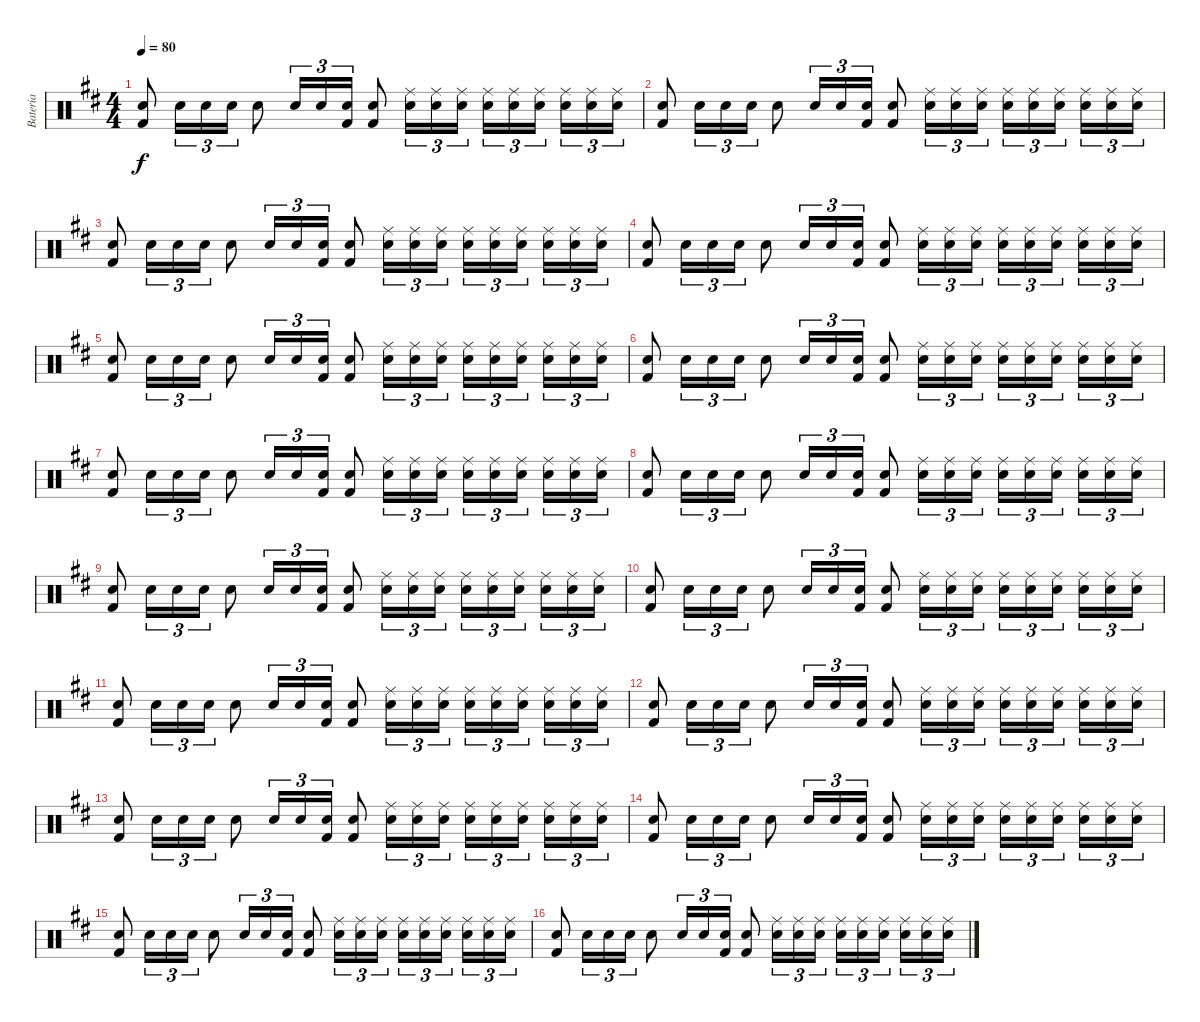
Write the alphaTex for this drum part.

\track ("Bateria" "Bateria") {instrument percussion}
\staff {score}
\articulation defaults
\ts (4 4)
\tempo 80
\clef neutral
\ks d
("Kick (hit) 2" "Electric Snare (hit)").8{dy f} "Electric Snare (hit)".16{tu (3 2)} "Electric Snare (hit)".16{tu (3 2)} "Electric Snare (hit)".16{tu (3 2)} "Electric Snare (hit)".8 "Electric Snare (hit)".16{tu (3 2)} "Electric Snare (hit)".16{tu (3 2)} ("Kick (hit) 2" "Electric Snare (hit)").16{tu (3 2)} ("Kick (hit) 2" "Electric Snare (hit)").8 ("Ride (middle)" "Electric Snare (hit)").16{tu (3 2)} ("Ride (middle)" "Electric Snare (hit)").16{tu (3 2)} ("Ride (middle)" "Electric Snare (hit)").16{tu (3 2)} ("Ride (middle)" "Electric Snare (hit)").16{tu (3 2)} ("Ride (middle)" "Electric Snare (hit)").16{tu (3 2)} ("Ride (middle)" "Electric Snare (hit)").16{tu (3 2) beam splitsecondary} ("Ride (middle)" "Electric Snare (hit)").16{tu (3 2)} ("Ride (middle)" "Electric Snare (hit)").16{tu (3 2)} ("Ride (middle)" "Electric Snare (hit)").16{tu (3 2)} |
("Kick (hit) 2" "Electric Snare (hit)").8 "Electric Snare (hit)".16{tu (3 2)} "Electric Snare (hit)".16{tu (3 2)} "Electric Snare (hit)".16{tu (3 2)} "Electric Snare (hit)".8 "Electric Snare (hit)".16{tu (3 2)} "Electric Snare (hit)".16{tu (3 2)} ("Kick (hit) 2" "Electric Snare (hit)").16{tu (3 2)} ("Kick (hit) 2" "Electric Snare (hit)").8 ("Ride (middle)" "Electric Snare (hit)").16{tu (3 2)} ("Ride (middle)" "Electric Snare (hit)").16{tu (3 2)} ("Ride (middle)" "Electric Snare (hit)").16{tu (3 2)} ("Ride (middle)" "Electric Snare (hit)").16{tu (3 2)} ("Ride (middle)" "Electric Snare (hit)").16{tu (3 2)} ("Ride (middle)" "Electric Snare (hit)").16{tu (3 2) beam splitsecondary} ("Ride (middle)" "Electric Snare (hit)").16{tu (3 2)} ("Ride (middle)" "Electric Snare (hit)").16{tu (3 2)} ("Ride (middle)" "Electric Snare (hit)").16{tu (3 2)} |
("Kick (hit) 2" "Electric Snare (hit)").8 "Electric Snare (hit)".16{tu (3 2)} "Electric Snare (hit)".16{tu (3 2)} "Electric Snare (hit)".16{tu (3 2)} "Electric Snare (hit)".8 "Electric Snare (hit)".16{tu (3 2)} "Electric Snare (hit)".16{tu (3 2)} ("Kick (hit) 2" "Electric Snare (hit)").16{tu (3 2)} ("Kick (hit) 2" "Electric Snare (hit)").8 ("Ride (middle)" "Electric Snare (hit)").16{tu (3 2)} ("Ride (middle)" "Electric Snare (hit)").16{tu (3 2)} ("Ride (middle)" "Electric Snare (hit)").16{tu (3 2)} ("Ride (middle)" "Electric Snare (hit)").16{tu (3 2)} ("Ride (middle)" "Electric Snare (hit)").16{tu (3 2)} ("Ride (middle)" "Electric Snare (hit)").16{tu (3 2) beam splitsecondary} ("Ride (middle)" "Electric Snare (hit)").16{tu (3 2)} ("Ride (middle)" "Electric Snare (hit)").16{tu (3 2)} ("Ride (middle)" "Electric Snare (hit)").16{tu (3 2)} |
("Kick (hit) 2" "Electric Snare (hit)").8 "Electric Snare (hit)".16{tu (3 2)} "Electric Snare (hit)".16{tu (3 2)} "Electric Snare (hit)".16{tu (3 2)} "Electric Snare (hit)".8 "Electric Snare (hit)".16{tu (3 2)} "Electric Snare (hit)".16{tu (3 2)} ("Kick (hit) 2" "Electric Snare (hit)").16{tu (3 2)} ("Kick (hit) 2" "Electric Snare (hit)").8 ("Ride (middle)" "Electric Snare (hit)").16{tu (3 2)} ("Ride (middle)" "Electric Snare (hit)").16{tu (3 2)} ("Ride (middle)" "Electric Snare (hit)").16{tu (3 2)} ("Ride (middle)" "Electric Snare (hit)").16{tu (3 2)} ("Ride (middle)" "Electric Snare (hit)").16{tu (3 2)} ("Ride (middle)" "Electric Snare (hit)").16{tu (3 2) beam splitsecondary} ("Ride (middle)" "Electric Snare (hit)").16{tu (3 2)} ("Ride (middle)" "Electric Snare (hit)").16{tu (3 2)} ("Ride (middle)" "Electric Snare (hit)").16{tu (3 2)} |
("Kick (hit) 2" "Electric Snare (hit)").8 "Electric Snare (hit)".16{tu (3 2)} "Electric Snare (hit)".16{tu (3 2)} "Electric Snare (hit)".16{tu (3 2)} "Electric Snare (hit)".8 "Electric Snare (hit)".16{tu (3 2)} "Electric Snare (hit)".16{tu (3 2)} ("Kick (hit) 2" "Electric Snare (hit)").16{tu (3 2)} ("Kick (hit) 2" "Electric Snare (hit)").8 ("Ride (middle)" "Electric Snare (hit)").16{tu (3 2)} ("Ride (middle)" "Electric Snare (hit)").16{tu (3 2)} ("Ride (middle)" "Electric Snare (hit)").16{tu (3 2)} ("Ride (middle)" "Electric Snare (hit)").16{tu (3 2)} ("Ride (middle)" "Electric Snare (hit)").16{tu (3 2)} ("Ride (middle)" "Electric Snare (hit)").16{tu (3 2) beam splitsecondary} ("Ride (middle)" "Electric Snare (hit)").16{tu (3 2)} ("Ride (middle)" "Electric Snare (hit)").16{tu (3 2)} ("Ride (middle)" "Electric Snare (hit)").16{tu (3 2)} |
("Kick (hit) 2" "Electric Snare (hit)").8 "Electric Snare (hit)".16{tu (3 2)} "Electric Snare (hit)".16{tu (3 2)} "Electric Snare (hit)".16{tu (3 2)} "Electric Snare (hit)".8 "Electric Snare (hit)".16{tu (3 2)} "Electric Snare (hit)".16{tu (3 2)} ("Kick (hit) 2" "Electric Snare (hit)").16{tu (3 2)} ("Kick (hit) 2" "Electric Snare (hit)").8 ("Ride (middle)" "Electric Snare (hit)").16{tu (3 2)} ("Ride (middle)" "Electric Snare (hit)").16{tu (3 2)} ("Ride (middle)" "Electric Snare (hit)").16{tu (3 2)} ("Ride (middle)" "Electric Snare (hit)").16{tu (3 2)} ("Ride (middle)" "Electric Snare (hit)").16{tu (3 2)} ("Ride (middle)" "Electric Snare (hit)").16{tu (3 2) beam splitsecondary} ("Ride (middle)" "Electric Snare (hit)").16{tu (3 2)} ("Ride (middle)" "Electric Snare (hit)").16{tu (3 2)} ("Ride (middle)" "Electric Snare (hit)").16{tu (3 2)} |
("Kick (hit) 2" "Electric Snare (hit)").8 "Electric Snare (hit)".16{tu (3 2)} "Electric Snare (hit)".16{tu (3 2)} "Electric Snare (hit)".16{tu (3 2)} "Electric Snare (hit)".8 "Electric Snare (hit)".16{tu (3 2)} "Electric Snare (hit)".16{tu (3 2)} ("Kick (hit) 2" "Electric Snare (hit)").16{tu (3 2)} ("Kick (hit) 2" "Electric Snare (hit)").8 ("Ride (middle)" "Electric Snare (hit)").16{tu (3 2)} ("Ride (middle)" "Electric Snare (hit)").16{tu (3 2)} ("Ride (middle)" "Electric Snare (hit)").16{tu (3 2)} ("Ride (middle)" "Electric Snare (hit)").16{tu (3 2)} ("Ride (middle)" "Electric Snare (hit)").16{tu (3 2)} ("Ride (middle)" "Electric Snare (hit)").16{tu (3 2) beam splitsecondary} ("Ride (middle)" "Electric Snare (hit)").16{tu (3 2)} ("Ride (middle)" "Electric Snare (hit)").16{tu (3 2)} ("Ride (middle)" "Electric Snare (hit)").16{tu (3 2)} |
("Kick (hit) 2" "Electric Snare (hit)").8 "Electric Snare (hit)".16{tu (3 2)} "Electric Snare (hit)".16{tu (3 2)} "Electric Snare (hit)".16{tu (3 2)} "Electric Snare (hit)".8 "Electric Snare (hit)".16{tu (3 2)} "Electric Snare (hit)".16{tu (3 2)} ("Kick (hit) 2" "Electric Snare (hit)").16{tu (3 2)} ("Kick (hit) 2" "Electric Snare (hit)").8 ("Ride (middle)" "Electric Snare (hit)").16{tu (3 2)} ("Ride (middle)" "Electric Snare (hit)").16{tu (3 2)} ("Ride (middle)" "Electric Snare (hit)").16{tu (3 2)} ("Ride (middle)" "Electric Snare (hit)").16{tu (3 2)} ("Ride (middle)" "Electric Snare (hit)").16{tu (3 2)} ("Ride (middle)" "Electric Snare (hit)").16{tu (3 2) beam splitsecondary} ("Ride (middle)" "Electric Snare (hit)").16{tu (3 2)} ("Ride (middle)" "Electric Snare (hit)").16{tu (3 2)} ("Ride (middle)" "Electric Snare (hit)").16{tu (3 2)} |
("Kick (hit) 2" "Electric Snare (hit)").8 "Electric Snare (hit)".16{tu (3 2)} "Electric Snare (hit)".16{tu (3 2)} "Electric Snare (hit)".16{tu (3 2)} "Electric Snare (hit)".8 "Electric Snare (hit)".16{tu (3 2)} "Electric Snare (hit)".16{tu (3 2)} ("Kick (hit) 2" "Electric Snare (hit)").16{tu (3 2)} ("Kick (hit) 2" "Electric Snare (hit)").8 ("Ride (middle)" "Electric Snare (hit)").16{tu (3 2)} ("Ride (middle)" "Electric Snare (hit)").16{tu (3 2)} ("Ride (middle)" "Electric Snare (hit)").16{tu (3 2)} ("Ride (middle)" "Electric Snare (hit)").16{tu (3 2)} ("Ride (middle)" "Electric Snare (hit)").16{tu (3 2)} ("Ride (middle)" "Electric Snare (hit)").16{tu (3 2) beam splitsecondary} ("Ride (middle)" "Electric Snare (hit)").16{tu (3 2)} ("Ride (middle)" "Electric Snare (hit)").16{tu (3 2)} ("Ride (middle)" "Electric Snare (hit)").16{tu (3 2)} |
("Kick (hit) 2" "Electric Snare (hit)").8 "Electric Snare (hit)".16{tu (3 2)} "Electric Snare (hit)".16{tu (3 2)} "Electric Snare (hit)".16{tu (3 2)} "Electric Snare (hit)".8 "Electric Snare (hit)".16{tu (3 2)} "Electric Snare (hit)".16{tu (3 2)} ("Kick (hit) 2" "Electric Snare (hit)").16{tu (3 2)} ("Kick (hit) 2" "Electric Snare (hit)").8 ("Ride (middle)" "Electric Snare (hit)").16{tu (3 2)} ("Ride (middle)" "Electric Snare (hit)").16{tu (3 2)} ("Ride (middle)" "Electric Snare (hit)").16{tu (3 2)} ("Ride (middle)" "Electric Snare (hit)").16{tu (3 2)} ("Ride (middle)" "Electric Snare (hit)").16{tu (3 2)} ("Ride (middle)" "Electric Snare (hit)").16{tu (3 2) beam splitsecondary} ("Ride (middle)" "Electric Snare (hit)").16{tu (3 2)} ("Ride (middle)" "Electric Snare (hit)").16{tu (3 2)} ("Ride (middle)" "Electric Snare (hit)").16{tu (3 2)} |
("Kick (hit) 2" "Electric Snare (hit)").8 "Electric Snare (hit)".16{tu (3 2)} "Electric Snare (hit)".16{tu (3 2)} "Electric Snare (hit)".16{tu (3 2)} "Electric Snare (hit)".8 "Electric Snare (hit)".16{tu (3 2)} "Electric Snare (hit)".16{tu (3 2)} ("Kick (hit) 2" "Electric Snare (hit)").16{tu (3 2)} ("Kick (hit) 2" "Electric Snare (hit)").8 ("Ride (middle)" "Electric Snare (hit)").16{tu (3 2)} ("Ride (middle)" "Electric Snare (hit)").16{tu (3 2)} ("Ride (middle)" "Electric Snare (hit)").16{tu (3 2)} ("Ride (middle)" "Electric Snare (hit)").16{tu (3 2)} ("Ride (middle)" "Electric Snare (hit)").16{tu (3 2)} ("Ride (middle)" "Electric Snare (hit)").16{tu (3 2) beam splitsecondary} ("Ride (middle)" "Electric Snare (hit)").16{tu (3 2)} ("Ride (middle)" "Electric Snare (hit)").16{tu (3 2)} ("Ride (middle)" "Electric Snare (hit)").16{tu (3 2)} |
("Kick (hit) 2" "Electric Snare (hit)").8 "Electric Snare (hit)".16{tu (3 2)} "Electric Snare (hit)".16{tu (3 2)} "Electric Snare (hit)".16{tu (3 2)} "Electric Snare (hit)".8 "Electric Snare (hit)".16{tu (3 2)} "Electric Snare (hit)".16{tu (3 2)} ("Kick (hit) 2" "Electric Snare (hit)").16{tu (3 2)} ("Kick (hit) 2" "Electric Snare (hit)").8 ("Ride (middle)" "Electric Snare (hit)").16{tu (3 2)} ("Ride (middle)" "Electric Snare (hit)").16{tu (3 2)} ("Ride (middle)" "Electric Snare (hit)").16{tu (3 2)} ("Ride (middle)" "Electric Snare (hit)").16{tu (3 2)} ("Ride (middle)" "Electric Snare (hit)").16{tu (3 2)} ("Ride (middle)" "Electric Snare (hit)").16{tu (3 2) beam splitsecondary} ("Ride (middle)" "Electric Snare (hit)").16{tu (3 2)} ("Ride (middle)" "Electric Snare (hit)").16{tu (3 2)} ("Ride (middle)" "Electric Snare (hit)").16{tu (3 2)} |
("Kick (hit) 2" "Electric Snare (hit)").8 "Electric Snare (hit)".16{tu (3 2)} "Electric Snare (hit)".16{tu (3 2)} "Electric Snare (hit)".16{tu (3 2)} "Electric Snare (hit)".8 "Electric Snare (hit)".16{tu (3 2)} "Electric Snare (hit)".16{tu (3 2)} ("Kick (hit) 2" "Electric Snare (hit)").16{tu (3 2)} ("Kick (hit) 2" "Electric Snare (hit)").8 ("Ride (middle)" "Electric Snare (hit)").16{tu (3 2)} ("Ride (middle)" "Electric Snare (hit)").16{tu (3 2)} ("Ride (middle)" "Electric Snare (hit)").16{tu (3 2)} ("Ride (middle)" "Electric Snare (hit)").16{tu (3 2)} ("Ride (middle)" "Electric Snare (hit)").16{tu (3 2)} ("Ride (middle)" "Electric Snare (hit)").16{tu (3 2) beam splitsecondary} ("Ride (middle)" "Electric Snare (hit)").16{tu (3 2)} ("Ride (middle)" "Electric Snare (hit)").16{tu (3 2)} ("Ride (middle)" "Electric Snare (hit)").16{tu (3 2)} |
("Kick (hit) 2" "Electric Snare (hit)").8 "Electric Snare (hit)".16{tu (3 2)} "Electric Snare (hit)".16{tu (3 2)} "Electric Snare (hit)".16{tu (3 2)} "Electric Snare (hit)".8 "Electric Snare (hit)".16{tu (3 2)} "Electric Snare (hit)".16{tu (3 2)} ("Kick (hit) 2" "Electric Snare (hit)").16{tu (3 2)} ("Kick (hit) 2" "Electric Snare (hit)").8 ("Ride (middle)" "Electric Snare (hit)").16{tu (3 2)} ("Ride (middle)" "Electric Snare (hit)").16{tu (3 2)} ("Ride (middle)" "Electric Snare (hit)").16{tu (3 2)} ("Ride (middle)" "Electric Snare (hit)").16{tu (3 2)} ("Ride (middle)" "Electric Snare (hit)").16{tu (3 2)} ("Ride (middle)" "Electric Snare (hit)").16{tu (3 2) beam splitsecondary} ("Ride (middle)" "Electric Snare (hit)").16{tu (3 2)} ("Ride (middle)" "Electric Snare (hit)").16{tu (3 2)} ("Ride (middle)" "Electric Snare (hit)").16{tu (3 2)} |
("Kick (hit) 2" "Electric Snare (hit)").8 "Electric Snare (hit)".16{tu (3 2)} "Electric Snare (hit)".16{tu (3 2)} "Electric Snare (hit)".16{tu (3 2)} "Electric Snare (hit)".8 "Electric Snare (hit)".16{tu (3 2)} "Electric Snare (hit)".16{tu (3 2)} ("Kick (hit) 2" "Electric Snare (hit)").16{tu (3 2)} ("Kick (hit) 2" "Electric Snare (hit)").8 ("Ride (middle)" "Electric Snare (hit)").16{tu (3 2)} ("Ride (middle)" "Electric Snare (hit)").16{tu (3 2)} ("Ride (middle)" "Electric Snare (hit)").16{tu (3 2)} ("Ride (middle)" "Electric Snare (hit)").16{tu (3 2)} ("Ride (middle)" "Electric Snare (hit)").16{tu (3 2)} ("Ride (middle)" "Electric Snare (hit)").16{tu (3 2) beam splitsecondary} ("Ride (middle)" "Electric Snare (hit)").16{tu (3 2)} ("Ride (middle)" "Electric Snare (hit)").16{tu (3 2)} ("Ride (middle)" "Electric Snare (hit)").16{tu (3 2)} |
("Kick (hit) 2" "Electric Snare (hit)").8 "Electric Snare (hit)".16{tu (3 2)} "Electric Snare (hit)".16{tu (3 2)} "Electric Snare (hit)".16{tu (3 2)} "Electric Snare (hit)".8 "Electric Snare (hit)".16{tu (3 2)} "Electric Snare (hit)".16{tu (3 2)} ("Kick (hit) 2" "Electric Snare (hit)").16{tu (3 2)} ("Kick (hit) 2" "Electric Snare (hit)").8 ("Ride (middle)" "Electric Snare (hit)").16{tu (3 2)} ("Ride (middle)" "Electric Snare (hit)").16{tu (3 2)} ("Ride (middle)" "Electric Snare (hit)").16{tu (3 2)} ("Ride (middle)" "Electric Snare (hit)").16{tu (3 2)} ("Ride (middle)" "Electric Snare (hit)").16{tu (3 2)} ("Ride (middle)" "Electric Snare (hit)").16{tu (3 2) beam splitsecondary} ("Ride (middle)" "Electric Snare (hit)").16{tu (3 2)} ("Ride (middle)" "Electric Snare (hit)").16{tu (3 2)} ("Ride (middle)" "Electric Snare (hit)").16{tu (3 2)}
